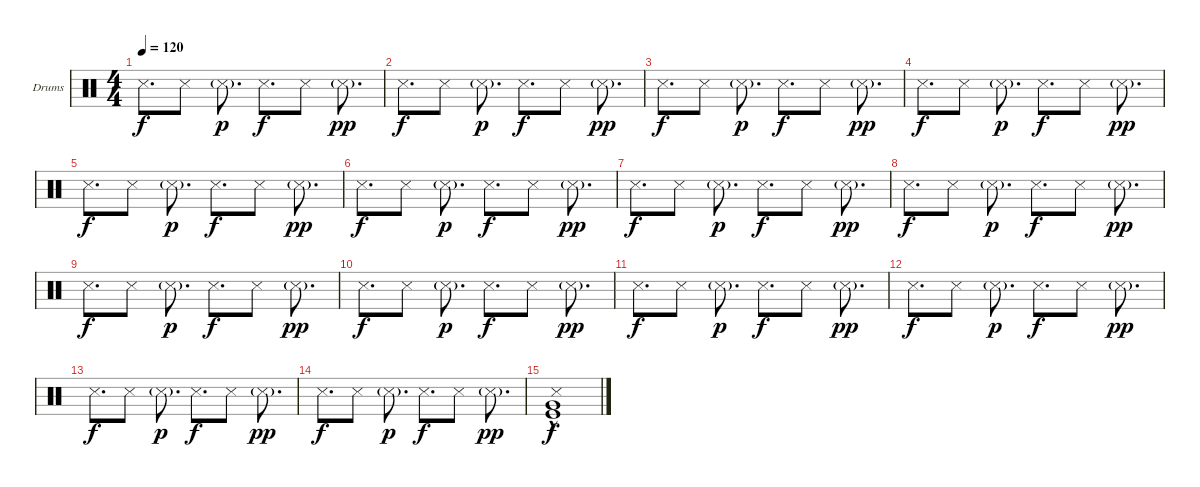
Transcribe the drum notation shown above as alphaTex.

\bracketExtendMode groupsimilarinstruments
\firstSystemTrackNameOrientation horizontal
\otherSystemsTrackNameOrientation horizontal
\track ("Drumkit (Christoph)" "Drums") {instrument percussion}
\staff {score}
\articulation defaults
\ts (4 4)
\tempo 120
\clef neutral
\ks c "Snare (side stick) 3".8{d dy f} "Snare (side stick) 3".8 "Snare (side stick) 3"{g}.8{d dy p} "Snare (side stick) 3".8{d dy f} "Snare (side stick) 3".8 "Snare (side stick) 3"{g}.8{d dy pp}
|
"Snare (side stick) 3".8{d dy f} "Snare (side stick) 3".8 "Snare (side stick) 3"{g}.8{d dy p} "Snare (side stick) 3".8{d dy f} "Snare (side stick) 3".8 "Snare (side stick) 3"{g}.8{d dy pp} |
"Snare (side stick) 3".8{d dy f} "Snare (side stick) 3".8 "Snare (side stick) 3"{g}.8{d dy p} "Snare (side stick) 3".8{d dy f} "Snare (side stick) 3".8 "Snare (side stick) 3"{g}.8{d dy pp} |
"Snare (side stick) 3".8{d dy f} "Snare (side stick) 3".8 "Snare (side stick) 3"{g}.8{d dy p} "Snare (side stick) 3".8{d dy f} "Snare (side stick) 3".8 "Snare (side stick) 3"{g}.8{d dy pp} |
"Snare (side stick) 3".8{d dy f} "Snare (side stick) 3".8 "Snare (side stick) 3"{g}.8{d dy p} "Snare (side stick) 3".8{d dy f} "Snare (side stick) 3".8 "Snare (side stick) 3"{g}.8{d dy pp} |
"Snare (side stick) 3".8{d dy f} "Snare (side stick) 3".8 "Snare (side stick) 3"{g}.8{d dy p} "Snare (side stick) 3".8{d dy f} "Snare (side stick) 3".8 "Snare (side stick) 3"{g}.8{d dy pp} |
"Snare (side stick) 3".8{d dy f} "Snare (side stick) 3".8 "Snare (side stick) 3"{g}.8{d dy p} "Snare (side stick) 3".8{d dy f} "Snare (side stick) 3".8 "Snare (side stick) 3"{g}.8{d dy pp} |
"Snare (side stick) 3".8{d dy f} "Snare (side stick) 3".8 "Snare (side stick) 3"{g}.8{d dy p} "Snare (side stick) 3".8{d dy f} "Snare (side stick) 3".8 "Snare (side stick) 3"{g}.8{d dy pp} |
"Snare (side stick) 3".8{d dy f} "Snare (side stick) 3".8 "Snare (side stick) 3"{g}.8{d dy p} "Snare (side stick) 3".8{d dy f} "Snare (side stick) 3".8 "Snare (side stick) 3"{g}.8{d dy pp} |
"Snare (side stick) 3".8{d dy f} "Snare (side stick) 3".8 "Snare (side stick) 3"{g}.8{d dy p} "Snare (side stick) 3".8{d dy f} "Snare (side stick) 3".8 "Snare (side stick) 3"{g}.8{d dy pp} |
"Snare (side stick) 3".8{d dy f} "Snare (side stick) 3".8 "Snare (side stick) 3"{g}.8{d dy p} "Snare (side stick) 3".8{d dy f} "Snare (side stick) 3".8 "Snare (side stick) 3"{g}.8{d dy pp} |
"Snare (side stick) 3".8{d dy f} "Snare (side stick) 3".8 "Snare (side stick) 3"{g}.8{d dy p} "Snare (side stick) 3".8{d dy f} "Snare (side stick) 3".8 "Snare (side stick) 3"{g}.8{d dy pp} |
"Snare (side stick) 3".8{d dy f} "Snare (side stick) 3".8 "Snare (side stick) 3"{g}.8{d dy p} "Snare (side stick) 3".8{d dy f} "Snare (side stick) 3".8 "Snare (side stick) 3"{g}.8{d dy pp} |
"Snare (side stick) 3".8{d dy f} "Snare (side stick) 3".8 "Snare (side stick) 3"{g}.8{d dy p} "Snare (side stick) 3".8{d dy f} "Snare (side stick) 3".8 "Snare (side stick) 3"{g}.8{d dy pp} |
("Snare (side stick) 3" "Kick (hit)"{hac} "Very Low Tom (hit)"{hac}).1{dy f}
